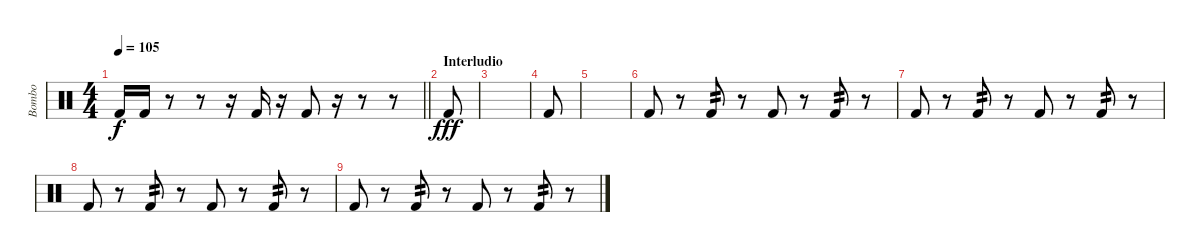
\track ("Bombo" "Bombo") {instrument percussion}
\staff {score}
\articulation defaults
\ts (4 4)
\tempo 105
\clef neutral
\barLineRight lightlight
\ks c "Kick (hit) 2".16{dy f} "Kick (hit) 2".16
r.8 r.8 r.16 "Kick (hit) 2".16 r.16 "Kick (hit) 2".8 r.16 r.8 r.8 |
\section ("" "Interludio")
"Kick (hit) 2".8{dy fff} |
|
"Kick (hit) 2".8 |
|
"Kick (hit) 2".8 r.8 "Kick (hit) 2".8{tp 2} r.8 "Kick (hit) 2".8 r.8 "Kick (hit) 2".8{tp 2} r.8 |
"Kick (hit) 2".8 r.8 "Kick (hit) 2".8{tp 2} r.8 "Kick (hit) 2".8 r.8 "Kick (hit) 2".8{tp 2} r.8 |
"Kick (hit) 2".8 r.8 "Kick (hit) 2".8{tp 2} r.8 "Kick (hit) 2".8 r.8 "Kick (hit) 2".8{tp 2} r.8 |
"Kick (hit) 2".8 r.8 "Kick (hit) 2".8{tp 2} r.8 "Kick (hit) 2".8 r.8 "Kick (hit) 2".8{tp 2} r.8
